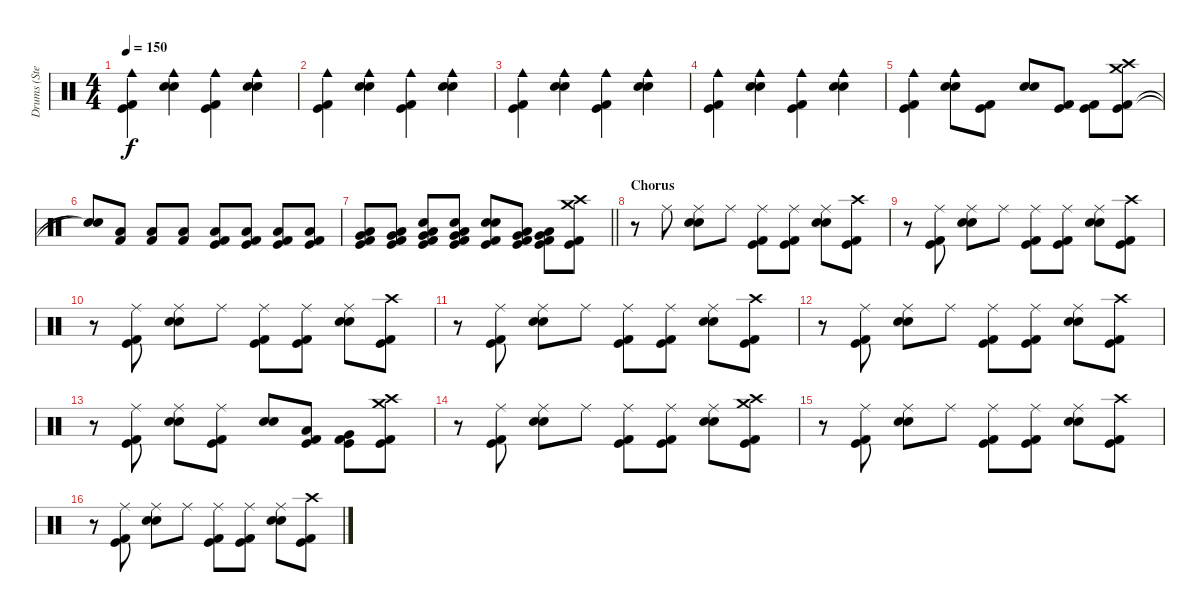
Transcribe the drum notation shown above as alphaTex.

\track ("Drums (Steven)" "Drums (Ste") {instrument percussion}
\staff {score}
\articulation defaults
\ts (4 4)
\tempo 150
\clef neutral
\ks c
("Kick (hit) 2" "Kick (hit)" "Cowbell medium (hit)").4{dy f} ("Electric Snare (hit)" "Snare (hit) 2" "Cowbell medium (hit)").4 ("Kick (hit) 2" "Kick (hit)" "Cowbell medium (hit)").4 ("Electric Snare (hit)" "Snare (hit) 2" "Cowbell medium (hit)").4 |
("Kick (hit) 2" "Kick (hit)" "Cowbell medium (hit)").4 ("Electric Snare (hit)" "Snare (hit) 2" "Cowbell medium (hit)").4 ("Kick (hit) 2" "Kick (hit)" "Cowbell medium (hit)").4 ("Electric Snare (hit)" "Snare (hit) 2" "Cowbell medium (hit)").4 |
("Kick (hit) 2" "Kick (hit)" "Cowbell medium (hit)").4 ("Electric Snare (hit)" "Snare (hit) 2" "Cowbell medium (hit)").4 ("Kick (hit) 2" "Kick (hit)" "Cowbell medium (hit)").4 ("Electric Snare (hit)" "Snare (hit) 2" "Cowbell medium (hit)").4 |
("Kick (hit) 2" "Kick (hit)" "Cowbell medium (hit)").4 ("Electric Snare (hit)" "Snare (hit) 2" "Cowbell medium (hit)").4 ("Kick (hit) 2" "Kick (hit)" "Cowbell medium (hit)").4 ("Electric Snare (hit)" "Snare (hit) 2" "Cowbell medium (hit)").4 |
("Kick (hit) 2" "Kick (hit)" "Cowbell medium (hit)").4 ("Electric Snare (hit)" "Snare (hit) 2" "Cowbell medium (hit)").8 ("Kick (hit) 2" "Kick (hit)").8 ("Electric Snare (hit)" "Snare (hit) 2").8 ("Kick (hit) 2" "Kick (hit)").8 ("Kick (hit) 2" "Kick (hit)").8 ("Kick (hit) 2" "Kick (hit)" "Crash medium (hit)" "Crash high (hit)").8 |
("Snare (hit)"{t} "Snare (hit)"{t}).8 ("Kick (hit) 2" "Low Floor Tom (hit)").8 ("Kick (hit) 2" "Low Floor Tom (hit)").8 ("Kick (hit) 2" "Low Floor Tom (hit)").8 ("Kick (hit) 2" "Kick (hit)" "Low Floor Tom (hit)").8 ("Kick (hit) 2" "Kick (hit)" "Low Floor Tom (hit)").8 ("Kick (hit) 2" "Kick (hit)" "Low Floor Tom (hit)").8 ("Kick (hit) 2" "Kick (hit)" "Low Floor Tom (hit)").8 |
\barLineRight lightlight
("Kick (hit) 2" "Kick (hit)" "Low Floor Tom (hit)" "Very Low Tom (hit)").8 ("Kick (hit) 2" "Kick (hit)" "Low Floor Tom (hit)" "Very Low Tom (hit)").8 ("Kick (hit) 2" "Kick (hit)" "Snare (hit) 2" "Low Floor Tom (hit)" "Very Low Tom (hit)").8 ("Kick (hit) 2" "Kick (hit)" "Snare (hit) 2" "Low Floor Tom (hit)" "Very Low Tom (hit)").8 ("Kick (hit) 2" "Kick (hit)" "Snare (hit) 2" "Electric Snare (hit)").8 ("Kick (hit) 2" "Kick (hit)" "Low Tom (hit)" "Very Low Tom (hit)").8 ("Kick (hit) 2" "Kick (hit)" "Very Low Tom (hit)" "Low Floor Tom (hit)").8 ("Kick (hit) 2" "Kick (hit)" "Crash medium (hit)" "Crash high (hit)").8 |
\section ("" "Chorus")
r.8 "Ride (middle)".8 ("Electric Snare (hit)" "Snare (hit) 2" "Ride (middle)").8 "Ride (middle)".8 ("Kick (hit) 2" "Kick (hit)" "Ride (middle)").8 ("Kick (hit) 2" "Kick (hit)" "Ride (middle)").8 ("Electric Snare (hit)" "Snare (hit) 2" "Ride (middle)").8 ("Kick (hit) 2" "Kick (hit)" "Crash high (hit)").8 |
r.8 ("Kick (hit) 2" "Kick (hit)" "Ride (middle)").8 ("Electric Snare (hit)" "Snare (hit) 2" "Ride (middle)").8 "Ride (middle)".8 ("Kick (hit) 2" "Kick (hit)" "Ride (middle)").8 ("Kick (hit) 2" "Kick (hit)" "Ride (middle)").8 ("Electric Snare (hit)" "Snare (hit) 2" "Ride (middle)").8 ("Kick (hit) 2" "Kick (hit)" "Crash high (hit)").8 |
r.8 ("Kick (hit) 2" "Kick (hit)" "Ride (middle)").8 ("Electric Snare (hit)" "Snare (hit) 2" "Ride (middle)").8 "Ride (middle)".8 ("Kick (hit) 2" "Kick (hit)" "Ride (middle)").8 ("Kick (hit) 2" "Kick (hit)" "Ride (middle)").8 ("Electric Snare (hit)" "Snare (hit) 2" "Ride (middle)").8 ("Kick (hit) 2" "Kick (hit)" "Crash high (hit)").8 |
r.8 ("Kick (hit) 2" "Kick (hit)" "Ride (middle)").8 ("Electric Snare (hit)" "Snare (hit) 2" "Ride (middle)").8 "Ride (middle)".8 ("Kick (hit) 2" "Kick (hit)" "Ride (middle)").8 ("Kick (hit) 2" "Kick (hit)" "Ride (middle)").8 ("Electric Snare (hit)" "Snare (hit) 2" "Ride (middle)").8 ("Kick (hit) 2" "Kick (hit)" "Crash high (hit)").8 |
r.8 ("Kick (hit) 2" "Kick (hit)" "Ride (middle)").8 ("Electric Snare (hit)" "Snare (hit) 2" "Ride (middle)").8 "Ride (middle)".8 ("Kick (hit) 2" "Kick (hit)" "Ride (middle)").8 ("Kick (hit) 2" "Kick (hit)" "Ride (middle)").8 ("Electric Snare (hit)" "Snare (hit) 2" "Ride (middle)").8 ("Kick (hit) 2" "Kick (hit)" "Crash high (hit)").8 |
r.8 ("Kick (hit) 2" "Kick (hit)" "Ride (middle)").8 ("Electric Snare (hit)" "Snare (hit) 2" "Ride (middle)").8 ("Kick (hit) 2" "Kick (hit)" "Ride (middle)").8 ("Electric Snare (hit)" "Snare (hit) 2").8 ("Kick (hit) 2" "Kick (hit)" "Low Tom (hit)").8 ("Kick (hit) 2" "Kick (hit)" "Very Low Tom (hit)").8 ("Kick (hit) 2" "Kick (hit)" "Crash medium (hit)" "Crash high (hit)").8 |
r.8 ("Kick (hit) 2" "Kick (hit)" "Ride (middle)").8 ("Electric Snare (hit)" "Snare (hit) 2" "Ride (middle)").8 "Ride (middle)".8 ("Kick (hit) 2" "Kick (hit)" "Ride (middle)").8 ("Kick (hit) 2" "Kick (hit)" "Ride (middle)").8 ("Electric Snare (hit)" "Snare (hit) 2" "Ride (middle)").8 ("Kick (hit) 2" "Kick (hit)" "Crash high (hit)" "Crash medium (hit)").8 |
r.8 ("Kick (hit) 2" "Kick (hit)" "Ride (middle)").8 ("Electric Snare (hit)" "Snare (hit) 2" "Ride (middle)").8 "Ride (middle)".8 ("Kick (hit) 2" "Kick (hit)" "Ride (middle)").8 ("Kick (hit) 2" "Kick (hit)" "Ride (middle)").8 ("Electric Snare (hit)" "Snare (hit) 2" "Ride (middle)").8 ("Kick (hit) 2" "Kick (hit)" "Crash high (hit)").8 |
r.8 ("Kick (hit) 2" "Kick (hit)" "Ride (middle)").8 ("Electric Snare (hit)" "Snare (hit) 2" "Ride (middle)").8 "Ride (middle)".8 ("Kick (hit) 2" "Kick (hit)" "Ride (middle)").8 ("Kick (hit) 2" "Kick (hit)" "Ride (middle)").8 ("Electric Snare (hit)" "Snare (hit) 2" "Ride (middle)").8 ("Kick (hit) 2" "Kick (hit)" "Crash high (hit)").8
